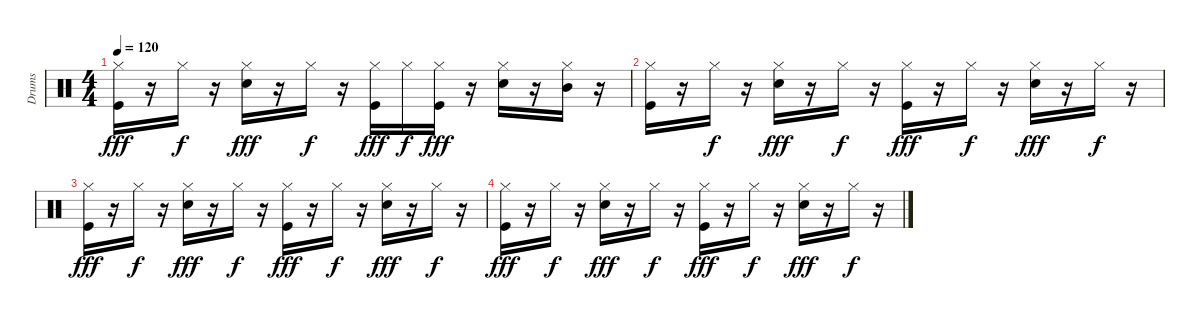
\track ("Drums" "Drums") {instrument percussion}
\staff {score}
\articulation defaults
\ts (4 4)
\tempo 120
\clef neutral
\ks c
("Hi-Hat (closed)" "Kick (hit)").16{dy fff} r.16 "Hi-Hat (closed)".16{dy f} r.16 ("Hi-Hat (closed)" "Electric Snare (hit)").16{dy fff} r.16 "Hi-Hat (closed)".16{dy f} r.16 ("Hi-Hat (closed)" "Kick (hit)").16{dy fff} "Hi-Hat (closed)".16{dy f} ("Hi-Hat (closed)" "Kick (hit)").16{dy fff} r.16 ("Hi-Hat (closed)" "Electric Snare (hit)").16 r.16 ("Hi-Hat (closed)" "Mid Tom (hit)").16 r.16 |
("Hi-Hat (closed)" "Kick (hit)").16 r.16 "Hi-Hat (closed)".16{dy f} r.16 ("Hi-Hat (closed)" "Electric Snare (hit)").16{dy fff} r.16 "Hi-Hat (closed)".16{dy f} r.16 ("Hi-Hat (closed)" "Kick (hit)").16{dy fff} r.16 "Hi-Hat (closed)".16{dy f} r.16 ("Hi-Hat (closed)" "Electric Snare (hit)").16{dy fff} r.16 "Hi-Hat (closed)".16{dy f} r.16 |
("Hi-Hat (closed)" "Kick (hit)").16{dy fff} r.16 "Hi-Hat (closed)".16{dy f} r.16 ("Hi-Hat (closed)" "Electric Snare (hit)").16{dy fff} r.16 "Hi-Hat (closed)".16{dy f} r.16 ("Hi-Hat (closed)" "Kick (hit)").16{dy fff} r.16 "Hi-Hat (closed)".16{dy f} r.16 ("Hi-Hat (closed)" "Electric Snare (hit)").16{dy fff} r.16 "Hi-Hat (closed)".16{dy f} r.16 |
("Hi-Hat (closed)" "Kick (hit)").16{dy fff} r.16 "Hi-Hat (closed)".16{dy f} r.16 ("Hi-Hat (closed)" "Electric Snare (hit)").16{dy fff} r.16 "Hi-Hat (closed)".16{dy f} r.16 ("Hi-Hat (closed)" "Kick (hit)").16{dy fff} r.16 "Hi-Hat (closed)".16{dy f} r.16 ("Hi-Hat (closed)" "Electric Snare (hit)").16{dy fff} r.16 "Hi-Hat (closed)".16{dy f} r.16
